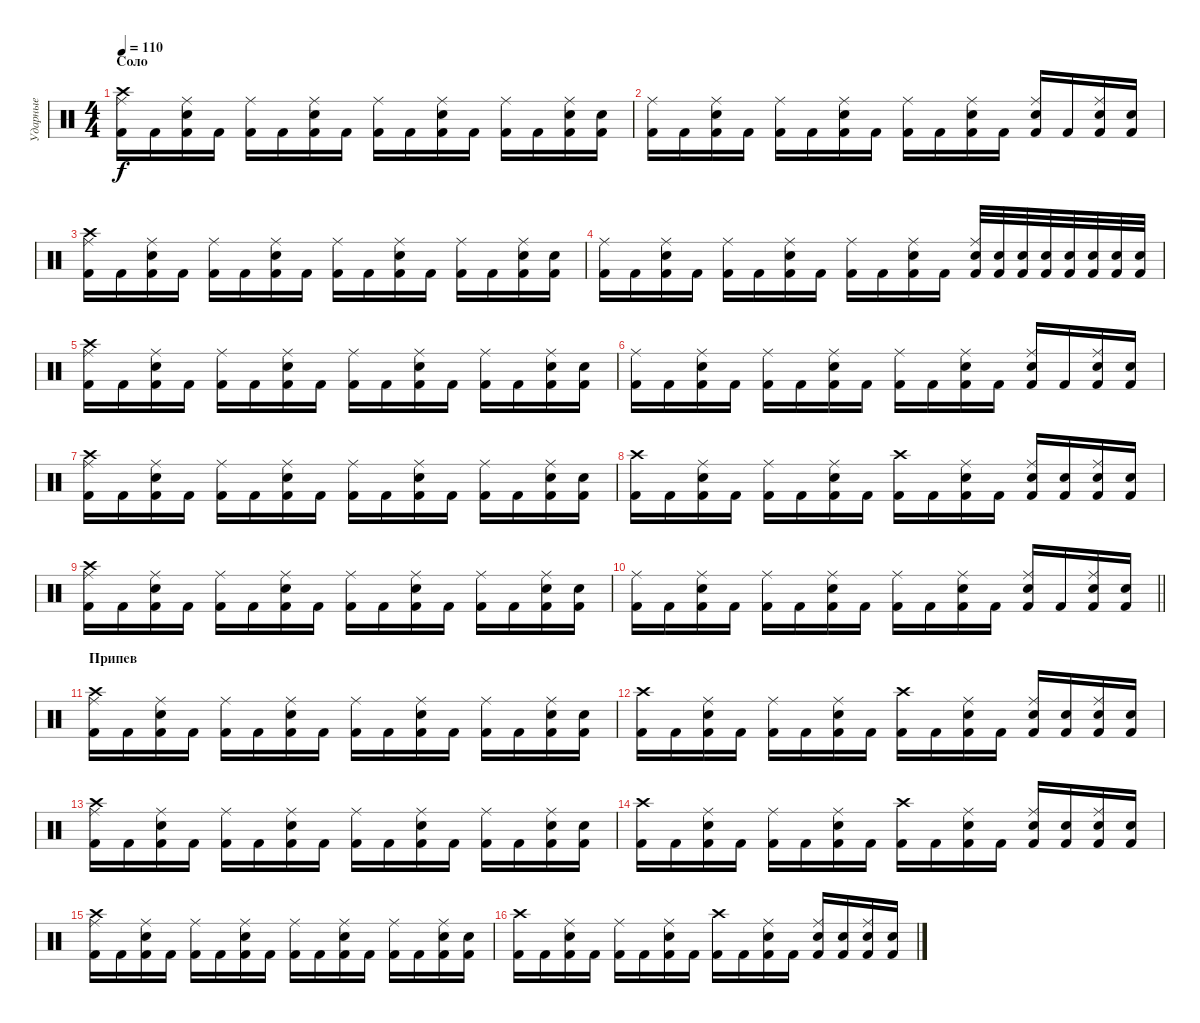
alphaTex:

\track ("Ударные" "Ударные") {instrument percussion}
\staff {score}
\articulation defaults
\ts (4 4)
\section ("" "Соло")
\tempo 110
\clef neutral
\ks c
("Kick (hit) 2" "Crash high (hit)" "Ride (middle)").16{dy f} "Kick (hit) 2".16 ("Kick (hit) 2" "Ride (middle)" "Snare (hit) 2").16 "Kick (hit) 2".16 ("Kick (hit) 2" "Ride (middle)").16 "Kick (hit) 2".16 ("Kick (hit) 2" "Ride (middle)" "Snare (hit) 2").16 "Kick (hit) 2".16 ("Kick (hit) 2" "Ride (middle)").16 "Kick (hit) 2".16 ("Kick (hit) 2" "Ride (middle)" "Snare (hit) 2").16 "Kick (hit) 2".16 ("Kick (hit) 2" "Ride (middle)").16 "Kick (hit) 2".16 ("Kick (hit) 2" "Ride (middle)" "Snare (hit) 2").16 ("Kick (hit) 2" "Snare (hit) 2").16 |
("Kick (hit) 2" "Ride (middle)").16 "Kick (hit) 2".16 ("Kick (hit) 2" "Ride (middle)" "Snare (hit) 2").16 "Kick (hit) 2".16 ("Kick (hit) 2" "Ride (middle)").16 "Kick (hit) 2".16 ("Kick (hit) 2" "Ride (middle)" "Snare (hit) 2").16 "Kick (hit) 2".16 ("Kick (hit) 2" "Ride (middle)").16 "Kick (hit) 2".16 ("Kick (hit) 2" "Ride (middle)" "Snare (hit) 2").16 "Kick (hit) 2".16 ("Kick (hit) 2" "Ride (middle)" "Snare (hit) 2").16 "Kick (hit) 2".16 ("Kick (hit) 2" "Ride (middle)" "Snare (hit) 2").16 ("Kick (hit) 2" "Snare (hit) 2").16 |
("Kick (hit) 2" "Crash high (hit)" "Ride (middle)").16 "Kick (hit) 2".16 ("Kick (hit) 2" "Ride (middle)" "Snare (hit) 2").16 "Kick (hit) 2".16 ("Kick (hit) 2" "Ride (middle)").16 "Kick (hit) 2".16 ("Kick (hit) 2" "Ride (middle)" "Snare (hit) 2").16 "Kick (hit) 2".16 ("Kick (hit) 2" "Ride (middle)").16 "Kick (hit) 2".16 ("Kick (hit) 2" "Ride (middle)" "Snare (hit) 2").16 "Kick (hit) 2".16 ("Kick (hit) 2" "Ride (middle)").16 "Kick (hit) 2".16 ("Kick (hit) 2" "Ride (middle)" "Snare (hit) 2").16 ("Kick (hit) 2" "Snare (hit) 2").16 |
("Kick (hit) 2" "Ride (middle)").16 "Kick (hit) 2".16 ("Kick (hit) 2" "Ride (middle)" "Snare (hit) 2").16 "Kick (hit) 2".16 ("Kick (hit) 2" "Ride (middle)").16 "Kick (hit) 2".16 ("Kick (hit) 2" "Ride (middle)" "Snare (hit) 2").16 "Kick (hit) 2".16 ("Kick (hit) 2" "Ride (middle)").16 "Kick (hit) 2".16 ("Kick (hit) 2" "Ride (middle)" "Snare (hit) 2").16 "Kick (hit) 2".16 ("Kick (hit) 2" "Ride (middle)" "Snare (hit) 2").32 ("Kick (hit) 2" "Snare (hit) 2").32 ("Kick (hit) 2" "Snare (hit) 2").32 ("Kick (hit) 2" "Snare (hit) 2").32 ("Kick (hit) 2" "Snare (hit) 2").32 ("Kick (hit) 2" "Snare (hit) 2").32 ("Kick (hit) 2" "Snare (hit) 2").32 ("Kick (hit) 2" "Snare (hit) 2").32 |
("Kick (hit) 2" "Crash high (hit)" "Ride (middle)").16 "Kick (hit) 2".16 ("Kick (hit) 2" "Ride (middle)" "Snare (hit) 2").16 "Kick (hit) 2".16 ("Kick (hit) 2" "Ride (middle)").16 "Kick (hit) 2".16 ("Kick (hit) 2" "Ride (middle)" "Snare (hit) 2").16 "Kick (hit) 2".16 ("Kick (hit) 2" "Ride (middle)").16 "Kick (hit) 2".16 ("Kick (hit) 2" "Ride (middle)" "Snare (hit) 2").16 "Kick (hit) 2".16 ("Kick (hit) 2" "Ride (middle)").16 "Kick (hit) 2".16 ("Kick (hit) 2" "Ride (middle)" "Snare (hit) 2").16 ("Kick (hit) 2" "Snare (hit) 2").16 |
("Kick (hit) 2" "Ride (middle)").16 "Kick (hit) 2".16 ("Kick (hit) 2" "Ride (middle)" "Snare (hit) 2").16 "Kick (hit) 2".16 ("Kick (hit) 2" "Ride (middle)").16 "Kick (hit) 2".16 ("Kick (hit) 2" "Ride (middle)" "Snare (hit) 2").16 "Kick (hit) 2".16 ("Kick (hit) 2" "Ride (middle)").16 "Kick (hit) 2".16 ("Kick (hit) 2" "Ride (middle)" "Snare (hit) 2").16 "Kick (hit) 2".16 ("Kick (hit) 2" "Ride (middle)" "Snare (hit) 2").16 "Kick (hit) 2".16 ("Kick (hit) 2" "Ride (middle)" "Snare (hit) 2").16 ("Kick (hit) 2" "Snare (hit) 2").16 |
("Kick (hit) 2" "Crash high (hit)" "Ride (middle)").16 "Kick (hit) 2".16 ("Kick (hit) 2" "Ride (middle)" "Snare (hit) 2").16 "Kick (hit) 2".16 ("Kick (hit) 2" "Ride (middle)").16 "Kick (hit) 2".16 ("Kick (hit) 2" "Ride (middle)" "Snare (hit) 2").16 "Kick (hit) 2".16 ("Kick (hit) 2" "Ride (middle)").16 "Kick (hit) 2".16 ("Kick (hit) 2" "Ride (middle)" "Snare (hit) 2").16 "Kick (hit) 2".16 ("Kick (hit) 2" "Ride (middle)").16 "Kick (hit) 2".16 ("Kick (hit) 2" "Ride (middle)" "Snare (hit) 2").16 ("Kick (hit) 2" "Snare (hit) 2").16 |
("Kick (hit) 2" "Crash high (hit)").16 "Kick (hit) 2".16 ("Kick (hit) 2" "Ride (middle)" "Snare (hit) 2").16 "Kick (hit) 2".16 ("Kick (hit) 2" "Ride (middle)").16 "Kick (hit) 2".16 ("Kick (hit) 2" "Ride (middle)" "Snare (hit) 2").16 "Kick (hit) 2".16 ("Kick (hit) 2" "Crash high (hit)").16 "Kick (hit) 2".16 ("Kick (hit) 2" "Ride (middle)" "Snare (hit) 2").16 "Kick (hit) 2".16 ("Kick (hit) 2" "Ride (middle)" "Snare (hit) 2").16 ("Kick (hit) 2" "Snare (hit) 2").16 ("Kick (hit) 2" "Ride (middle)" "Snare (hit) 2").16 ("Kick (hit) 2" "Snare (hit) 2").16 |
("Kick (hit) 2" "Crash high (hit)" "Ride (middle)").16 "Kick (hit) 2".16 ("Kick (hit) 2" "Ride (middle)" "Snare (hit) 2").16 "Kick (hit) 2".16 ("Kick (hit) 2" "Ride (middle)").16 "Kick (hit) 2".16 ("Kick (hit) 2" "Ride (middle)" "Snare (hit) 2").16 "Kick (hit) 2".16 ("Kick (hit) 2" "Ride (middle)").16 "Kick (hit) 2".16 ("Kick (hit) 2" "Ride (middle)" "Snare (hit) 2").16 "Kick (hit) 2".16 ("Kick (hit) 2" "Ride (middle)").16 "Kick (hit) 2".16 ("Kick (hit) 2" "Ride (middle)" "Snare (hit) 2").16 ("Kick (hit) 2" "Snare (hit) 2").16 |
\barLineRight lightlight
("Kick (hit) 2" "Ride (middle)").16 "Kick (hit) 2".16 ("Kick (hit) 2" "Ride (middle)" "Snare (hit) 2").16 "Kick (hit) 2".16 ("Kick (hit) 2" "Ride (middle)").16 "Kick (hit) 2".16 ("Kick (hit) 2" "Ride (middle)" "Snare (hit) 2").16 "Kick (hit) 2".16 ("Kick (hit) 2" "Ride (middle)").16 "Kick (hit) 2".16 ("Kick (hit) 2" "Ride (middle)" "Snare (hit) 2").16 "Kick (hit) 2".16 ("Kick (hit) 2" "Ride (middle)" "Snare (hit) 2").16 "Kick (hit) 2".16 ("Kick (hit) 2" "Ride (middle)" "Snare (hit) 2").16 ("Kick (hit) 2" "Snare (hit) 2").16 |
\section ("" "Припев")
("Kick (hit) 2" "Crash high (hit)" "Ride (middle)").16 "Kick (hit) 2".16 ("Kick (hit) 2" "Ride (middle)" "Snare (hit) 2").16 "Kick (hit) 2".16 ("Kick (hit) 2" "Ride (middle)").16 "Kick (hit) 2".16 ("Kick (hit) 2" "Ride (middle)" "Snare (hit) 2").16 "Kick (hit) 2".16 ("Kick (hit) 2" "Ride (middle)").16 "Kick (hit) 2".16 ("Kick (hit) 2" "Ride (middle)" "Snare (hit) 2").16 "Kick (hit) 2".16 ("Kick (hit) 2" "Ride (middle)").16 "Kick (hit) 2".16 ("Kick (hit) 2" "Ride (middle)" "Snare (hit) 2").16 ("Kick (hit) 2" "Snare (hit) 2").16 |
("Kick (hit) 2" "Crash high (hit)").16 "Kick (hit) 2".16 ("Kick (hit) 2" "Ride (middle)" "Snare (hit) 2").16 "Kick (hit) 2".16 ("Kick (hit) 2" "Ride (middle)").16 "Kick (hit) 2".16 ("Kick (hit) 2" "Ride (middle)" "Snare (hit) 2").16 "Kick (hit) 2".16 ("Kick (hit) 2" "Crash high (hit)").16 "Kick (hit) 2".16 ("Kick (hit) 2" "Ride (middle)" "Snare (hit) 2").16 "Kick (hit) 2".16 ("Kick (hit) 2" "Ride (middle)" "Snare (hit) 2").16 ("Kick (hit) 2" "Snare (hit) 2").16 ("Kick (hit) 2" "Ride (middle)" "Snare (hit) 2").16 ("Kick (hit) 2" "Snare (hit) 2").16 |
("Kick (hit) 2" "Crash high (hit)" "Ride (middle)").16 "Kick (hit) 2".16 ("Kick (hit) 2" "Ride (middle)" "Snare (hit) 2").16 "Kick (hit) 2".16 ("Kick (hit) 2" "Ride (middle)").16 "Kick (hit) 2".16 ("Kick (hit) 2" "Ride (middle)" "Snare (hit) 2").16 "Kick (hit) 2".16 ("Kick (hit) 2" "Ride (middle)").16 "Kick (hit) 2".16 ("Kick (hit) 2" "Ride (middle)" "Snare (hit) 2").16 "Kick (hit) 2".16 ("Kick (hit) 2" "Ride (middle)").16 "Kick (hit) 2".16 ("Kick (hit) 2" "Ride (middle)" "Snare (hit) 2").16 ("Kick (hit) 2" "Snare (hit) 2").16 |
("Kick (hit) 2" "Crash high (hit)").16 "Kick (hit) 2".16 ("Kick (hit) 2" "Ride (middle)" "Snare (hit) 2").16 "Kick (hit) 2".16 ("Kick (hit) 2" "Ride (middle)").16 "Kick (hit) 2".16 ("Kick (hit) 2" "Ride (middle)" "Snare (hit) 2").16 "Kick (hit) 2".16 ("Kick (hit) 2" "Crash high (hit)").16 "Kick (hit) 2".16 ("Kick (hit) 2" "Ride (middle)" "Snare (hit) 2").16 "Kick (hit) 2".16 ("Kick (hit) 2" "Ride (middle)" "Snare (hit) 2").16 ("Kick (hit) 2" "Snare (hit) 2").16 ("Kick (hit) 2" "Ride (middle)" "Snare (hit) 2").16 ("Kick (hit) 2" "Snare (hit) 2").16 |
("Kick (hit) 2" "Crash high (hit)" "Ride (middle)").16 "Kick (hit) 2".16 ("Kick (hit) 2" "Ride (middle)" "Snare (hit) 2").16 "Kick (hit) 2".16 ("Kick (hit) 2" "Ride (middle)").16 "Kick (hit) 2".16 ("Kick (hit) 2" "Ride (middle)" "Snare (hit) 2").16 "Kick (hit) 2".16 ("Kick (hit) 2" "Ride (middle)").16 "Kick (hit) 2".16 ("Kick (hit) 2" "Ride (middle)" "Snare (hit) 2").16 "Kick (hit) 2".16 ("Kick (hit) 2" "Ride (middle)").16 "Kick (hit) 2".16 ("Kick (hit) 2" "Ride (middle)" "Snare (hit) 2").16 ("Kick (hit) 2" "Snare (hit) 2").16 |
("Kick (hit) 2" "Crash high (hit)").16 "Kick (hit) 2".16 ("Kick (hit) 2" "Ride (middle)" "Snare (hit) 2").16 "Kick (hit) 2".16 ("Kick (hit) 2" "Ride (middle)").16 "Kick (hit) 2".16 ("Kick (hit) 2" "Ride (middle)" "Snare (hit) 2").16 "Kick (hit) 2".16 ("Kick (hit) 2" "Crash high (hit)").16 "Kick (hit) 2".16 ("Kick (hit) 2" "Ride (middle)" "Snare (hit) 2").16 "Kick (hit) 2".16 ("Kick (hit) 2" "Ride (middle)" "Snare (hit) 2").16 ("Kick (hit) 2" "Snare (hit) 2").16 ("Kick (hit) 2" "Ride (middle)" "Snare (hit) 2").16 ("Kick (hit) 2" "Snare (hit) 2").16
